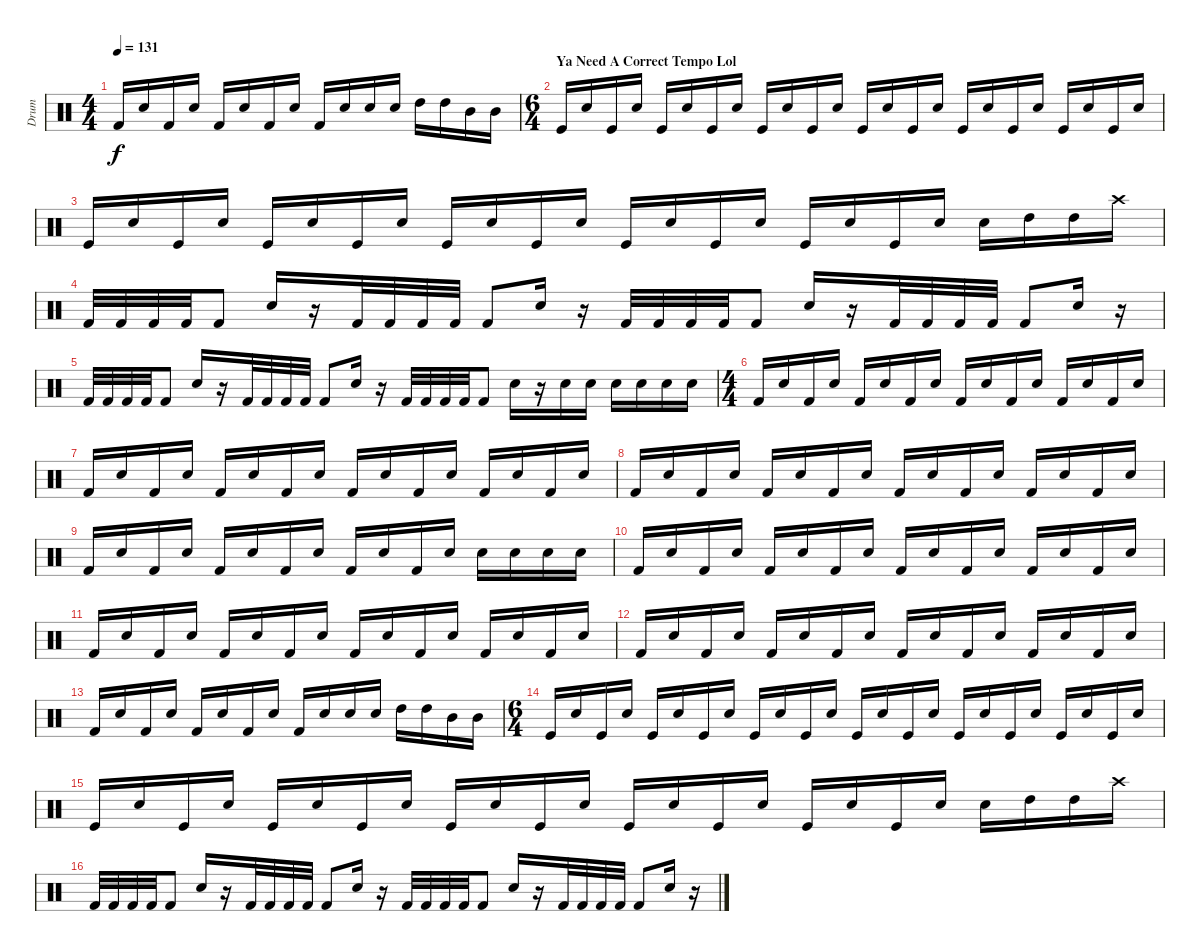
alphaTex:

\track ("Drum" "Drum") {instrument percussion}
\staff {score}
\articulation defaults
\ts (4 4)
\tempo 131
\clef neutral
\ks c "Kick (hit) 2".16{dy f} "Electric Snare (hit)".16 "Kick (hit) 2".16 "Electric Snare (hit)".16 "Kick (hit) 2".16 "Electric Snare (hit)".16 "Kick (hit) 2".16 "Electric Snare (hit)".16 "Kick (hit) 2".16 "Electric Snare (hit)".16 "Electric Snare (hit)".16 "Electric Snare (hit)".16 "High Tom (hit)".16 "High Tom (hit)".16 "Mid Tom (hit)".16 "Mid Tom (hit)".16
|
\ts (6 4)
\section ("" "Ya Need A Correct Tempo Lol")
"Kick (hit)".16 "Electric Snare (hit)".16 "Kick (hit)".16 "Electric Snare (hit)".16 "Kick (hit)".16 "Electric Snare (hit)".16 "Kick (hit)".16 "Electric Snare (hit)".16 "Kick (hit)".16 "Electric Snare (hit)".16 "Kick (hit)".16 "Electric Snare (hit)".16 "Kick (hit)".16 "Electric Snare (hit)".16 "Kick (hit)".16 "Electric Snare (hit)".16 "Kick (hit)".16 "Electric Snare (hit)".16 "Kick (hit)".16 "Electric Snare (hit)".16 "Kick (hit)".16 "Electric Snare (hit)".16 "Kick (hit)".16 "Electric Snare (hit)".16 |
"Kick (hit)".16 "Electric Snare (hit)".16 "Kick (hit)".16 "Electric Snare (hit)".16 "Kick (hit)".16 "Electric Snare (hit)".16 "Kick (hit)".16 "Electric Snare (hit)".16 "Kick (hit)".16 "Electric Snare (hit)".16 "Kick (hit)".16 "Electric Snare (hit)".16 "Kick (hit)".16 "Electric Snare (hit)".16 "Kick (hit)".16 "Electric Snare (hit)".16 "Kick (hit)".16 "Electric Snare (hit)".16 "Kick (hit)".16 "Electric Snare (hit)".16 "Electric Snare (hit)".16 "High Tom (hit)".16 "High Tom (hit)".16 "Crash high (hit)".16 |
"Kick (hit) 2".32 "Kick (hit) 2".32 "Kick (hit) 2".32 "Kick (hit) 2".32 "Kick (hit) 2".8 "Electric Snare (hit)".16 r.16 "Kick (hit) 2".32 "Kick (hit) 2".32 "Kick (hit) 2".32 "Kick (hit) 2".32 "Kick (hit) 2".8 "Electric Snare (hit)".16 r.16 "Kick (hit) 2".32 "Kick (hit) 2".32 "Kick (hit) 2".32 "Kick (hit) 2".32 "Kick (hit) 2".8 "Electric Snare (hit)".16 r.16 "Kick (hit) 2".32 "Kick (hit) 2".32 "Kick (hit) 2".32 "Kick (hit) 2".32 "Kick (hit) 2".8 "Electric Snare (hit)".16 r.16 |
"Kick (hit) 2".32 "Kick (hit) 2".32 "Kick (hit) 2".32 "Kick (hit) 2".32 "Kick (hit) 2".8 "Electric Snare (hit)".16 r.16 "Kick (hit) 2".32 "Kick (hit) 2".32 "Kick (hit) 2".32 "Kick (hit) 2".32 "Kick (hit) 2".8 "Electric Snare (hit)".16 r.16 "Kick (hit) 2".32 "Kick (hit) 2".32 "Kick (hit) 2".32 "Kick (hit) 2".32 "Kick (hit) 2".8 "Electric Snare (hit)".16 r.16 "Electric Snare (hit)".16 "Electric Snare (hit)".16 "Electric Snare (hit)".16 "Electric Snare (hit)".16 "Electric Snare (hit)".16 "Electric Snare (hit)".16 |
\ts (4 4)
"Kick (hit) 2".16 "Electric Snare (hit)".16 "Kick (hit) 2".16 "Electric Snare (hit)".16 "Kick (hit) 2".16 "Electric Snare (hit)".16 "Kick (hit) 2".16 "Electric Snare (hit)".16 "Kick (hit) 2".16 "Electric Snare (hit)".16 "Kick (hit) 2".16 "Electric Snare (hit)".16 "Kick (hit) 2".16 "Electric Snare (hit)".16 "Kick (hit) 2".16 "Electric Snare (hit)".16 |
"Kick (hit) 2".16 "Electric Snare (hit)".16 "Kick (hit) 2".16 "Electric Snare (hit)".16 "Kick (hit) 2".16 "Electric Snare (hit)".16 "Kick (hit) 2".16 "Electric Snare (hit)".16 "Kick (hit) 2".16 "Electric Snare (hit)".16 "Kick (hit) 2".16 "Electric Snare (hit)".16 "Kick (hit) 2".16 "Electric Snare (hit)".16 "Kick (hit) 2".16 "Electric Snare (hit)".16 |
"Kick (hit) 2".16 "Electric Snare (hit)".16 "Kick (hit) 2".16 "Electric Snare (hit)".16 "Kick (hit) 2".16 "Electric Snare (hit)".16 "Kick (hit) 2".16 "Electric Snare (hit)".16 "Kick (hit) 2".16 "Electric Snare (hit)".16 "Kick (hit) 2".16 "Electric Snare (hit)".16 "Kick (hit) 2".16 "Electric Snare (hit)".16 "Kick (hit) 2".16 "Electric Snare (hit)".16 |
"Kick (hit) 2".16 "Electric Snare (hit)".16 "Kick (hit) 2".16 "Electric Snare (hit)".16 "Kick (hit) 2".16 "Electric Snare (hit)".16 "Kick (hit) 2".16 "Electric Snare (hit)".16 "Kick (hit) 2".16 "Electric Snare (hit)".16 "Kick (hit) 2".16 "Electric Snare (hit)".16 "Electric Snare (hit)".16 "Electric Snare (hit)".16 "Electric Snare (hit)".16 "Electric Snare (hit)".16 |
"Kick (hit) 2".16 "Electric Snare (hit)".16 "Kick (hit) 2".16 "Electric Snare (hit)".16 "Kick (hit) 2".16 "Electric Snare (hit)".16 "Kick (hit) 2".16 "Electric Snare (hit)".16 "Kick (hit) 2".16 "Electric Snare (hit)".16 "Kick (hit) 2".16 "Electric Snare (hit)".16 "Kick (hit) 2".16 "Electric Snare (hit)".16 "Kick (hit) 2".16 "Electric Snare (hit)".16 |
"Kick (hit) 2".16 "Electric Snare (hit)".16 "Kick (hit) 2".16 "Electric Snare (hit)".16 "Kick (hit) 2".16 "Electric Snare (hit)".16 "Kick (hit) 2".16 "Electric Snare (hit)".16 "Kick (hit) 2".16 "Electric Snare (hit)".16 "Kick (hit) 2".16 "Electric Snare (hit)".16 "Kick (hit) 2".16 "Electric Snare (hit)".16 "Kick (hit) 2".16 "Electric Snare (hit)".16 |
"Kick (hit) 2".16 "Electric Snare (hit)".16 "Kick (hit) 2".16 "Electric Snare (hit)".16 "Kick (hit) 2".16 "Electric Snare (hit)".16 "Kick (hit) 2".16 "Electric Snare (hit)".16 "Kick (hit) 2".16 "Electric Snare (hit)".16 "Kick (hit) 2".16 "Electric Snare (hit)".16 "Kick (hit) 2".16 "Electric Snare (hit)".16 "Kick (hit) 2".16 "Electric Snare (hit)".16 |
"Kick (hit) 2".16 "Electric Snare (hit)".16 "Kick (hit) 2".16 "Electric Snare (hit)".16 "Kick (hit) 2".16 "Electric Snare (hit)".16 "Kick (hit) 2".16 "Electric Snare (hit)".16 "Kick (hit) 2".16 "Electric Snare (hit)".16 "Electric Snare (hit)".16 "Electric Snare (hit)".16 "High Tom (hit)".16 "High Tom (hit)".16 "Mid Tom (hit)".16 "Mid Tom (hit)".16 |
\ts (6 4)
"Kick (hit)".16 "Electric Snare (hit)".16 "Kick (hit)".16 "Electric Snare (hit)".16 "Kick (hit)".16 "Electric Snare (hit)".16 "Kick (hit)".16 "Electric Snare (hit)".16 "Kick (hit)".16 "Electric Snare (hit)".16 "Kick (hit)".16 "Electric Snare (hit)".16 "Kick (hit)".16 "Electric Snare (hit)".16 "Kick (hit)".16 "Electric Snare (hit)".16 "Kick (hit)".16 "Electric Snare (hit)".16 "Kick (hit)".16 "Electric Snare (hit)".16 "Kick (hit)".16 "Electric Snare (hit)".16 "Kick (hit)".16 "Electric Snare (hit)".16 |
"Kick (hit)".16 "Electric Snare (hit)".16 "Kick (hit)".16 "Electric Snare (hit)".16 "Kick (hit)".16 "Electric Snare (hit)".16 "Kick (hit)".16 "Electric Snare (hit)".16 "Kick (hit)".16 "Electric Snare (hit)".16 "Kick (hit)".16 "Electric Snare (hit)".16 "Kick (hit)".16 "Electric Snare (hit)".16 "Kick (hit)".16 "Electric Snare (hit)".16 "Kick (hit)".16 "Electric Snare (hit)".16 "Kick (hit)".16 "Electric Snare (hit)".16 "Electric Snare (hit)".16 "High Tom (hit)".16 "High Tom (hit)".16 "Crash high (hit)".16 |
"Kick (hit) 2".32 "Kick (hit) 2".32 "Kick (hit) 2".32 "Kick (hit) 2".32 "Kick (hit) 2".8 "Electric Snare (hit)".16 r.16 "Kick (hit) 2".32 "Kick (hit) 2".32 "Kick (hit) 2".32 "Kick (hit) 2".32 "Kick (hit) 2".8 "Electric Snare (hit)".16 r.16 "Kick (hit) 2".32 "Kick (hit) 2".32 "Kick (hit) 2".32 "Kick (hit) 2".32 "Kick (hit) 2".8 "Electric Snare (hit)".16 r.16 "Kick (hit) 2".32 "Kick (hit) 2".32 "Kick (hit) 2".32 "Kick (hit) 2".32 "Kick (hit) 2".8 "Electric Snare (hit)".16 r.16
